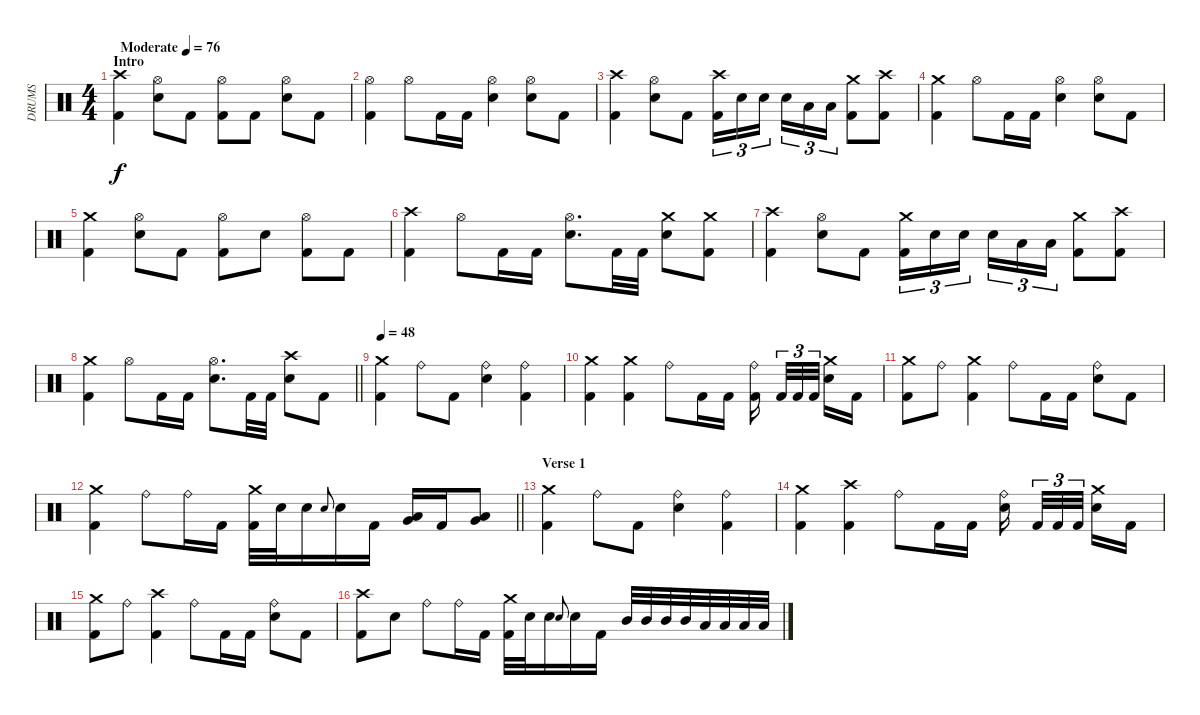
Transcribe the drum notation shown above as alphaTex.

\track ("DRUMS" "DRUMS") {instrument percussion}
\staff {score}
\articulation defaults
\ts (4 4)
\section ("" "Intro")
\tempo (76 "Moderate")
\clef neutral
\ks c
("Crash high (hit)" "Kick (hit) 2").4{dy f} ("Hi-Hat (open)" "Snare (hit) 2").8 "Kick (hit) 2".8 ("Hi-Hat (open)" "Kick (hit) 2").8 "Kick (hit) 2".8 ("Hi-Hat (open)" "Snare (hit) 2").8 "Kick (hit) 2".8 |
("Hi-Hat (open)" "Kick (hit) 2").4 "Hi-Hat (open)".8 "Kick (hit) 2".16 "Kick (hit) 2".16 ("Hi-Hat (open)" "Snare (hit) 2").4 ("Hi-Hat (open)" "Snare (hit) 2").8 "Kick (hit) 2".8 |
("Crash high (hit)" "Kick (hit) 2").4 ("Hi-Hat (open)" "Snare (hit) 2").8 "Kick (hit) 2".8 ("Crash high (hit)" "Kick (hit) 2").16{tu (3 2)} "Snare (hit) 2".16{tu (3 2)} "Snare (hit) 2".16{tu (3 2) beam splitsecondary} "Snare (hit) 2".16{tu (3 2)} "Low Tom (hit)".16{tu (3 2)} "Low Tom (hit)".16{tu (3 2)} ("Crash medium (hit)" "Kick (hit) 2").8 ("Crash high (hit)" "Kick (hit) 2").8 |
("Crash medium (hit)" "Kick (hit) 2").4 "Hi-Hat (open)".8 "Kick (hit) 2".16 "Kick (hit) 2".16 ("Hi-Hat (open)" "Snare (hit) 2").4 ("Hi-Hat (open)" "Snare (hit) 2").8 "Kick (hit) 2".8 |
("Crash medium (hit)" "Kick (hit) 2").4 ("Hi-Hat (open)" "Snare (hit) 2").8 "Kick (hit) 2".8 ("Hi-Hat (open)" "Kick (hit) 2").8 "Snare (hit) 2".8 ("Hi-Hat (open)" "Kick (hit) 2").8 "Kick (hit) 2".8 |
("Crash high (hit)" "Kick (hit) 2").4 "Hi-Hat (open)".8 "Kick (hit) 2".16 "Kick (hit) 2".16 ("Hi-Hat (open)" "Snare (hit) 2").8{d} "Kick (hit) 2".32 "Kick (hit) 2".32 ("Crash medium (hit)" "Snare (hit) 2").8 ("Crash medium (hit)" "Kick (hit) 2").8 |
("Crash high (hit)" "Kick (hit) 2").4 ("Hi-Hat (open)" "Snare (hit) 2").8 "Kick (hit) 2".8 ("Crash medium (hit)" "Kick (hit) 2").16{tu (3 2)} "Snare (hit) 2".16{tu (3 2)} "Snare (hit) 2".16{tu (3 2) beam splitsecondary} "Snare (hit) 2".16{tu (3 2)} "Low Tom (hit)".16{tu (3 2)} "Low Tom (hit)".16{tu (3 2)} ("Crash medium (hit)" "Kick (hit) 2").8 ("Crash high (hit)" "Kick (hit) 2").8 |
\barLineRight lightlight
("Crash medium (hit)" "Kick (hit) 2").4 "Hi-Hat (open)".8 "Kick (hit) 2".16 "Kick (hit) 2".16 ("Hi-Hat (open)" "Snare (hit) 2").8{d} "Kick (hit) 2".32 "Kick (hit) 2".32 ("Crash high (hit)" "Snare (hit) 2").8 "Kick (hit) 2".8 |
\tempo 48
("Crash medium (hit)" "Kick (hit) 2").4 "Ride (bell)".8 "Kick (hit) 2".8 ("Ride (bell)" "Snare (hit) 2").4 ("Ride (bell)" "Kick (hit) 2").4 |
("Crash medium (hit)" "Kick (hit) 2").4 ("Crash medium (hit)" "Kick (hit) 2").4 "Ride (bell)".8 "Kick (hit) 2".16 "Kick (hit) 2".16 ("Ride (bell)" "Kick (hit) 2").16{beam splitsecondary} "Kick (hit) 2".32{tu (3 2)} "Kick (hit) 2".32{tu (3 2)} "Kick (hit) 2".32{tu (3 2) beam splitsecondary} ("Crash medium (hit)" "Snare (hit) 2").16 "Kick (hit) 2".16 |
("Crash medium (hit)" "Kick (hit) 2").8 "Ride (bell)".8 ("Crash medium (hit)" "Kick (hit) 2").4 "Ride (bell)".8 "Kick (hit) 2".16 "Kick (hit) 2".16 ("Ride (bell)" "Snare (hit) 2").8 "Kick (hit) 2".8 |
\barLineRight lightlight
("Crash medium (hit)" "Kick (hit) 2").4 "Ride (bell)".8 "Ride (bell)".16 "Kick (hit) 2".16 ("Crash medium (hit)" "Kick (hit) 2").32 "Snare (hit) 2".32 "Snare (hit) 2".16 "Snare (hit) 2".8{gr onbeat} "Snare (hit) 2".16 "Kick (hit) 2".16 ("Low Tom (hit)" "Very Low Tom (hit)").16 "Kick (hit) 2".16 ("Very Low Tom (hit)" "Low Floor Tom (hit)").8 |
\section ("" "Verse 1")
("Crash medium (hit)" "Kick (hit) 2").4 "Ride (bell)".8 "Kick (hit) 2".8 ("Ride (bell)" "Snare (hit) 2").4 ("Ride (bell)" "Kick (hit) 2").4 |
("Crash medium (hit)" "Kick (hit) 2").4 ("Crash high (hit)" "Kick (hit) 2").4 "Ride (bell)".8 "Kick (hit) 2".16 "Kick (hit) 2".16 ("Ride (bell)" "Snare (hit) 2").16{beam splitsecondary} "Kick (hit) 2".32{tu (3 2)} "Kick (hit) 2".32{tu (3 2)} "Kick (hit) 2".32{tu (3 2) beam splitsecondary} ("Crash medium (hit)" "Snare (hit) 2").16 "Kick (hit) 2".16 |
("Crash medium (hit)" "Kick (hit) 2").8 "Ride (bell)".8 ("Crash high (hit)" "Kick (hit) 2").4 "Ride (bell)".8 "Kick (hit) 2".16 "Kick (hit) 2".16 ("Ride (bell)" "Snare (hit) 2").8 "Kick (hit) 2".8 |
("Crash high (hit)" "Kick (hit) 2").8 "Snare (hit) 2".8 "Ride (bell)".8 "Ride (bell)".16 "Kick (hit) 2".16 ("Crash medium (hit)" "Kick (hit) 2").32 "Snare (hit) 2".32 "Snare (hit) 2".16 "Snare (hit) 2".8{gr onbeat} "Snare (hit) 2".16 "Kick (hit) 2".16 "Mid Tom (hit)".32 "Mid Tom (hit)".32 "Mid Tom (hit)".32 "Mid Tom (hit)".32 "Low Tom (hit)".32 "Low Tom (hit)".32 "Low Tom (hit)".32 "Low Tom (hit)".32
